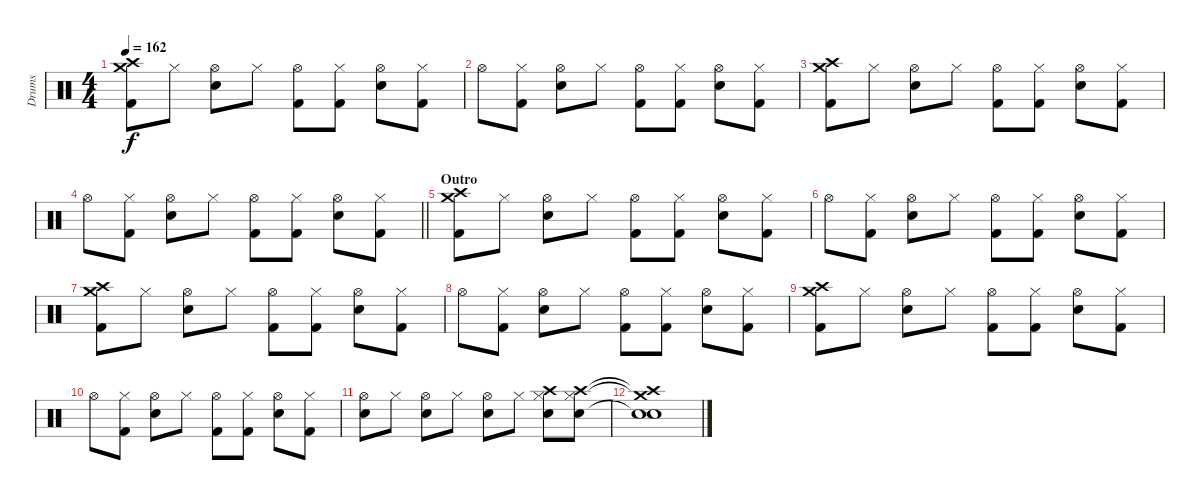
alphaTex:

\track ("Drums" "Drums") {instrument percussion}
\staff {score}
\articulation defaults
\ts (4 4)
\tempo 162
\clef neutral
\ks c
("Crash high (hit)" "Crash medium (hit)" "Kick (hit) 2").8{dy f} "Hi-Hat (closed)".8 ("Hi-Hat (open)" "Snare (hit) 2").8 "Hi-Hat (closed)".8 ("Hi-Hat (open)" "Kick (hit) 2").8 ("Hi-Hat (closed)" "Kick (hit) 2").8 ("Hi-Hat (open)" "Snare (hit) 2").8 ("Hi-Hat (closed)" "Kick (hit) 2").8 |
"Hi-Hat (open)".8 ("Hi-Hat (closed)" "Kick (hit) 2").8 ("Hi-Hat (open)" "Snare (hit) 2").8 "Hi-Hat (closed)".8 ("Hi-Hat (open)" "Kick (hit) 2").8 ("Hi-Hat (closed)" "Kick (hit) 2").8 ("Hi-Hat (open)" "Snare (hit) 2").8 ("Hi-Hat (closed)" "Kick (hit) 2").8 |
("Crash high (hit)" "Crash medium (hit)" "Kick (hit) 2").8 "Hi-Hat (closed)".8 ("Hi-Hat (open)" "Snare (hit) 2").8 "Hi-Hat (closed)".8 ("Hi-Hat (open)" "Kick (hit) 2").8 ("Hi-Hat (closed)" "Kick (hit) 2").8 ("Hi-Hat (open)" "Snare (hit) 2").8 ("Hi-Hat (closed)" "Kick (hit) 2").8 |
\barLineRight lightlight "Hi-Hat (open)".8
("Hi-Hat (closed)" "Kick (hit) 2").8 ("Hi-Hat (open)" "Snare (hit) 2").8 "Hi-Hat (closed)".8 ("Hi-Hat (open)" "Kick (hit) 2").8 ("Hi-Hat (closed)" "Kick (hit) 2").8 ("Hi-Hat (open)" "Snare (hit) 2").8 ("Hi-Hat (closed)" "Kick (hit) 2").8 |
\section ("" "Outro")
("Crash high (hit)" "Crash medium (hit)" "Kick (hit) 2").8 "Hi-Hat (closed)".8 ("Hi-Hat (open)" "Snare (hit) 2").8 "Hi-Hat (closed)".8 ("Hi-Hat (open)" "Kick (hit) 2").8 ("Hi-Hat (closed)" "Kick (hit) 2").8 ("Hi-Hat (open)" "Snare (hit) 2").8 ("Hi-Hat (closed)" "Kick (hit) 2").8 |
"Hi-Hat (open)".8 ("Hi-Hat (closed)" "Kick (hit) 2").8 ("Hi-Hat (open)" "Snare (hit) 2").8 "Hi-Hat (closed)".8 ("Hi-Hat (open)" "Kick (hit) 2").8 ("Hi-Hat (closed)" "Kick (hit) 2").8 ("Hi-Hat (open)" "Snare (hit) 2").8 ("Hi-Hat (closed)" "Kick (hit) 2").8 |
("Crash high (hit)" "Crash medium (hit)" "Kick (hit) 2").8 "Hi-Hat (closed)".8 ("Hi-Hat (open)" "Snare (hit) 2").8 "Hi-Hat (closed)".8 ("Hi-Hat (open)" "Kick (hit) 2").8 ("Hi-Hat (closed)" "Kick (hit) 2").8 ("Hi-Hat (open)" "Snare (hit) 2").8 ("Hi-Hat (closed)" "Kick (hit) 2").8 |
"Hi-Hat (open)".8 ("Hi-Hat (closed)" "Kick (hit) 2").8 ("Hi-Hat (open)" "Snare (hit) 2").8 "Hi-Hat (closed)".8 ("Hi-Hat (open)" "Kick (hit) 2").8 ("Hi-Hat (closed)" "Kick (hit) 2").8 ("Hi-Hat (open)" "Snare (hit) 2").8 ("Hi-Hat (closed)" "Kick (hit) 2").8 |
("Crash high (hit)" "Crash medium (hit)" "Kick (hit) 2").8 "Hi-Hat (closed)".8 ("Hi-Hat (open)" "Snare (hit) 2").8 "Hi-Hat (closed)".8 ("Hi-Hat (open)" "Kick (hit) 2").8 ("Hi-Hat (closed)" "Kick (hit) 2").8 ("Hi-Hat (open)" "Snare (hit) 2").8 ("Hi-Hat (closed)" "Kick (hit) 2").8 |
"Hi-Hat (open)".8 ("Hi-Hat (closed)" "Kick (hit) 2").8 ("Hi-Hat (open)" "Snare (hit) 2").8 "Hi-Hat (closed)".8 ("Hi-Hat (open)" "Kick (hit) 2").8 ("Hi-Hat (closed)" "Kick (hit) 2").8 ("Hi-Hat (open)" "Snare (hit) 2").8 ("Hi-Hat (closed)" "Kick (hit) 2").8 |
("Hi-Hat (open)" "Snare (hit) 2").8 "Hi-Hat (closed)".8 ("Hi-Hat (open)" "Snare (hit) 2").8 "Hi-Hat (closed)".8 ("Hi-Hat (open)" "Snare (hit) 2").8 "Hi-Hat (closed)".8 ("Crash high (hit)" "Hi-Hat (closed)" "Snare (hit) 2").8 ("Crash high (hit)" "Hi-Hat (closed)" "Snare (hit) 2").8 |
("Crash high (hit)"{t} "Crash medium (hit)"{t} "Snare (hit)"{t} "Snare (hit) 2").1
